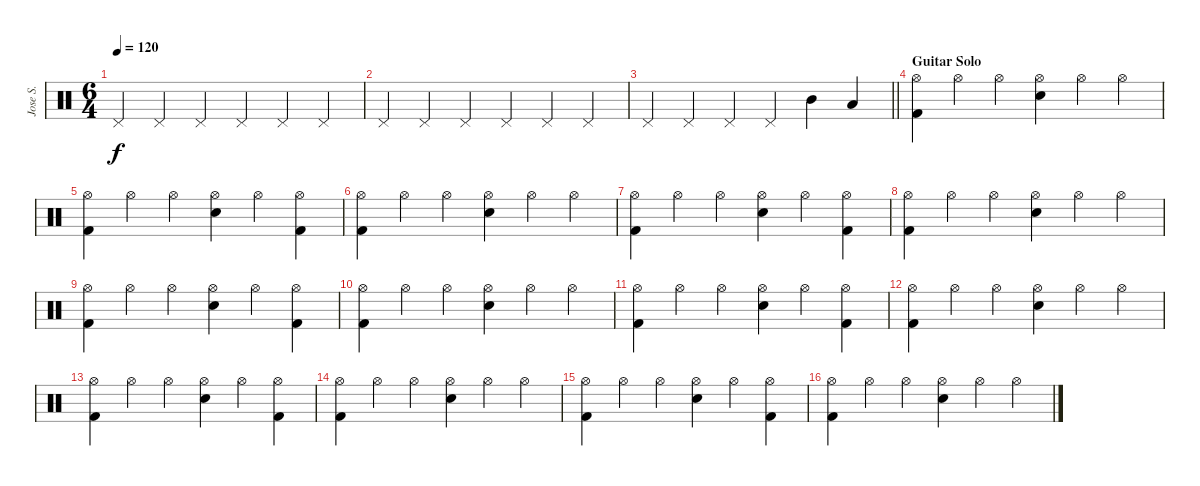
\track ("Jose S." "Jose S.") {instrument percussion}
\staff {score}
\articulation defaults
\ts (6 4)
\tempo 120
\clef neutral
\ks c "Pedal Hi-Hat (hit)".4{dy f volume 13} "Pedal Hi-Hat (hit)".4{volume 8} "Pedal Hi-Hat (hit)".4{volume 5} "Pedal Hi-Hat (hit)".4{volume 3} "Pedal Hi-Hat (hit)".4{volume 2} "Pedal Hi-Hat (hit)".4{volume 1}
|
"Pedal Hi-Hat (hit)".4{volume 13} "Pedal Hi-Hat (hit)".4{volume 8} "Pedal Hi-Hat (hit)".4{volume 5} "Pedal Hi-Hat (hit)".4{volume 3} "Pedal Hi-Hat (hit)".4{volume 2} "Pedal Hi-Hat (hit)".4{volume 1} |
\barLineRight lightlight "Pedal Hi-Hat (hit)".4{volume 13} "Pedal Hi-Hat (hit)".4{volume 8} "Pedal Hi-Hat (hit)".4{volume 5} "Pedal Hi-Hat (hit)".4{volume 3} "Mid Tom (hit)".4{volume 13} "Low Tom (hit)".4
|
\section ("" "Guitar Solo")
("Hi-Hat (open)" "Kick (hit) 2").4{volume 10} "Hi-Hat (open)".4 "Hi-Hat (open)".4 ("Hi-Hat (open)" "Snare (hit) 2").4 "Hi-Hat (open)".4 "Hi-Hat (open)".4 |
("Hi-Hat (open)" "Kick (hit) 2").4 "Hi-Hat (open)".4 "Hi-Hat (open)".4 ("Hi-Hat (open)" "Snare (hit) 2").4 "Hi-Hat (open)".4 ("Hi-Hat (open)" "Kick (hit) 2").4 |
("Hi-Hat (open)" "Kick (hit) 2").4 "Hi-Hat (open)".4 "Hi-Hat (open)".4 ("Hi-Hat (open)" "Snare (hit) 2").4 "Hi-Hat (open)".4 "Hi-Hat (open)".4 |
("Hi-Hat (open)" "Kick (hit) 2").4 "Hi-Hat (open)".4 "Hi-Hat (open)".4 ("Hi-Hat (open)" "Snare (hit) 2").4 "Hi-Hat (open)".4 ("Hi-Hat (open)" "Kick (hit) 2").4 |
("Hi-Hat (open)" "Kick (hit) 2").4 "Hi-Hat (open)".4 "Hi-Hat (open)".4 ("Hi-Hat (open)" "Snare (hit) 2").4 "Hi-Hat (open)".4 "Hi-Hat (open)".4 |
("Hi-Hat (open)" "Kick (hit) 2").4 "Hi-Hat (open)".4 "Hi-Hat (open)".4 ("Hi-Hat (open)" "Snare (hit) 2").4 "Hi-Hat (open)".4 ("Hi-Hat (open)" "Kick (hit) 2").4 |
("Hi-Hat (open)" "Kick (hit) 2").4 "Hi-Hat (open)".4 "Hi-Hat (open)".4 ("Hi-Hat (open)" "Snare (hit) 2").4 "Hi-Hat (open)".4 "Hi-Hat (open)".4 |
("Hi-Hat (open)" "Kick (hit) 2").4 "Hi-Hat (open)".4 "Hi-Hat (open)".4 ("Hi-Hat (open)" "Snare (hit) 2").4 "Hi-Hat (open)".4 ("Hi-Hat (open)" "Kick (hit) 2").4 |
("Hi-Hat (open)" "Kick (hit) 2").4 "Hi-Hat (open)".4 "Hi-Hat (open)".4 ("Hi-Hat (open)" "Snare (hit) 2").4 "Hi-Hat (open)".4 "Hi-Hat (open)".4 |
("Hi-Hat (open)" "Kick (hit) 2").4 "Hi-Hat (open)".4 "Hi-Hat (open)".4 ("Hi-Hat (open)" "Snare (hit) 2").4 "Hi-Hat (open)".4 ("Hi-Hat (open)" "Kick (hit) 2").4 |
("Hi-Hat (open)" "Kick (hit) 2").4 "Hi-Hat (open)".4 "Hi-Hat (open)".4 ("Hi-Hat (open)" "Snare (hit) 2").4 "Hi-Hat (open)".4 "Hi-Hat (open)".4 |
("Hi-Hat (open)" "Kick (hit) 2").4 "Hi-Hat (open)".4 "Hi-Hat (open)".4 ("Hi-Hat (open)" "Snare (hit) 2").4 "Hi-Hat (open)".4 ("Hi-Hat (open)" "Kick (hit) 2").4 |
("Hi-Hat (open)" "Kick (hit) 2").4 "Hi-Hat (open)".4 "Hi-Hat (open)".4 ("Hi-Hat (open)" "Snare (hit) 2").4 "Hi-Hat (open)".4 "Hi-Hat (open)".4
